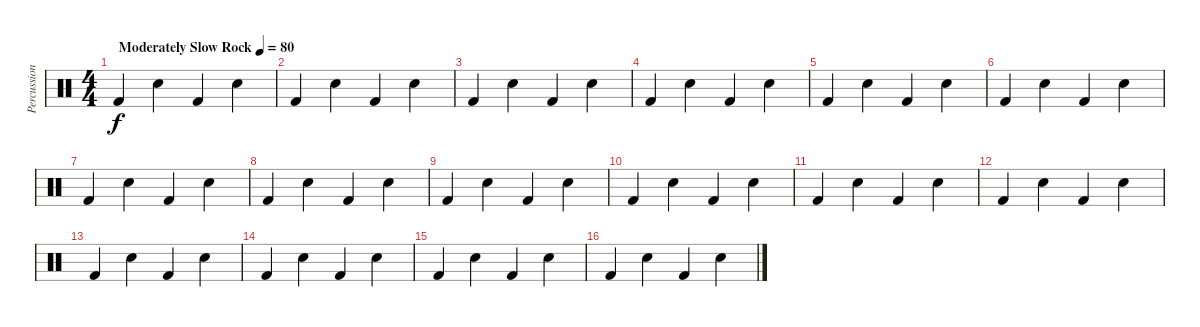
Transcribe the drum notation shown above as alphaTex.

\track ("Percussion" "Percussion") {instrument percussion}
\staff {score}
\articulation defaults
\ts (4 4)
\tempo (80 "Moderately Slow Rock")
\clef neutral
\ks c "Kick (hit) 2".4{dy f} "Snare (hit) 2".4 "Kick (hit) 2".4 "Snare (hit) 2".4
|
"Kick (hit) 2".4 "Snare (hit) 2".4 "Kick (hit) 2".4 "Snare (hit) 2".4 |
"Kick (hit) 2".4 "Snare (hit) 2".4 "Kick (hit) 2".4 "Snare (hit) 2".4 |
"Kick (hit) 2".4 "Snare (hit) 2".4 "Kick (hit) 2".4 "Snare (hit) 2".4 |
"Kick (hit) 2".4 "Snare (hit) 2".4 "Kick (hit) 2".4 "Snare (hit) 2".4 |
"Kick (hit) 2".4 "Snare (hit) 2".4 "Kick (hit) 2".4 "Snare (hit) 2".4 |
"Kick (hit) 2".4 "Snare (hit) 2".4 "Kick (hit) 2".4 "Snare (hit) 2".4 |
"Kick (hit) 2".4 "Snare (hit) 2".4 "Kick (hit) 2".4 "Snare (hit) 2".4 |
"Kick (hit) 2".4 "Snare (hit) 2".4 "Kick (hit) 2".4 "Snare (hit) 2".4 |
"Kick (hit) 2".4 "Snare (hit) 2".4 "Kick (hit) 2".4 "Snare (hit) 2".4 |
"Kick (hit) 2".4 "Snare (hit) 2".4 "Kick (hit) 2".4 "Snare (hit) 2".4 |
"Kick (hit) 2".4 "Snare (hit) 2".4 "Kick (hit) 2".4 "Snare (hit) 2".4 |
"Kick (hit) 2".4 "Snare (hit) 2".4 "Kick (hit) 2".4 "Snare (hit) 2".4 |
"Kick (hit) 2".4 "Snare (hit) 2".4 "Kick (hit) 2".4 "Snare (hit) 2".4 |
"Kick (hit) 2".4 "Snare (hit) 2".4 "Kick (hit) 2".4 "Snare (hit) 2".4 |
"Kick (hit) 2".4 "Snare (hit) 2".4 "Kick (hit) 2".4 "Snare (hit) 2".4
